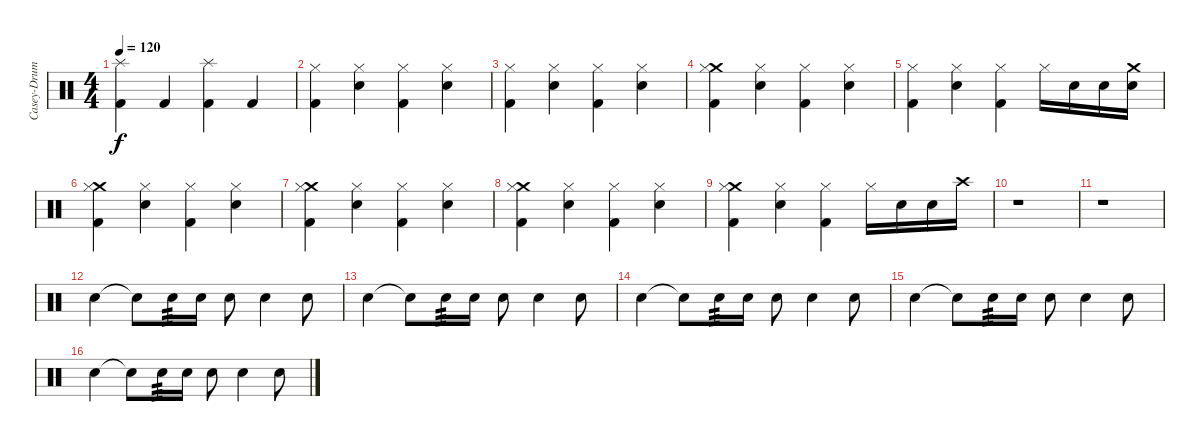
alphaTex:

\track ("Casey-Drums" "Casey-Drum") {instrument percussion}
\staff {score}
\articulation defaults
\ts (4 4)
\tempo 120
\clef neutral
\ks c
("Splash (hit)" "Kick (hit) 2").4{dy f} "Kick (hit) 2".4 ("Splash (hit)" "Kick (hit) 2").4 "Kick (hit) 2".4 |
("Hi-Hat (closed)" "Kick (hit) 2").4 ("Hi-Hat (closed)" "Electric Snare (hit)").4 ("Hi-Hat (closed)" "Kick (hit) 2").4 ("Hi-Hat (closed)" "Electric Snare (hit)").4 |
("Hi-Hat (closed)" "Kick (hit) 2").4 ("Hi-Hat (closed)" "Electric Snare (hit)").4 ("Hi-Hat (closed)" "Kick (hit) 2").4 ("Hi-Hat (closed)" "Electric Snare (hit)").4 |
("Crash medium (hit)" "Hi-Hat (closed)" "Kick (hit) 2").4 ("Hi-Hat (closed)" "Electric Snare (hit)").4 ("Hi-Hat (closed)" "Kick (hit) 2").4 ("Hi-Hat (closed)" "Electric Snare (hit)").4 |
("Hi-Hat (closed)" "Kick (hit) 2").4 ("Hi-Hat (closed)" "Electric Snare (hit)").4 ("Hi-Hat (closed)" "Kick (hit) 2").4 "Hi-Hat (closed)".16 "Electric Snare (hit)".16 "Electric Snare (hit)".16 ("Crash medium (hit)" "Electric Snare (hit)").16 |
("Crash medium (hit)" "Hi-Hat (closed)" "Kick (hit) 2").4 ("Hi-Hat (closed)" "Electric Snare (hit)").4 ("Hi-Hat (closed)" "Kick (hit) 2").4 ("Hi-Hat (closed)" "Electric Snare (hit)").4 |
("Crash medium (hit)" "Hi-Hat (closed)" "Kick (hit) 2").4 ("Hi-Hat (closed)" "Electric Snare (hit)").4 ("Hi-Hat (closed)" "Kick (hit) 2").4 ("Hi-Hat (closed)" "Electric Snare (hit)").4 |
("Crash medium (hit)" "Hi-Hat (closed)" "Kick (hit) 2").4 ("Hi-Hat (closed)" "Electric Snare (hit)").4 ("Hi-Hat (closed)" "Kick (hit) 2").4 ("Hi-Hat (closed)" "Electric Snare (hit)").4 |
("Crash medium (hit)" "Hi-Hat (closed)" "Kick (hit) 2").4 ("Hi-Hat (closed)" "Electric Snare (hit)").4 ("Hi-Hat (closed)" "Kick (hit) 2").4 "Hi-Hat (closed)".16 "Electric Snare (hit)".16 "Electric Snare (hit)".16 "Crash high (hit)".16 |
r.1 |
r.1 |
"Electric Snare (hit)".4 "Electric Snare (hit)"{t}.8 "Electric Snare (hit)".16{tp 3} "Electric Snare (hit)".16 "Electric Snare (hit)".8 "Electric Snare (hit)".4 "Electric Snare (hit)".8 |
"Electric Snare (hit)".4 "Electric Snare (hit)"{t}.8 "Electric Snare (hit)".16{tp 3} "Electric Snare (hit)".16 "Electric Snare (hit)".8 "Electric Snare (hit)".4 "Electric Snare (hit)".8 |
"Electric Snare (hit)".4 "Electric Snare (hit)"{t}.8 "Electric Snare (hit)".16{tp 3} "Electric Snare (hit)".16 "Electric Snare (hit)".8 "Electric Snare (hit)".4 "Electric Snare (hit)".8 |
"Electric Snare (hit)".4 "Electric Snare (hit)"{t}.8 "Electric Snare (hit)".16{tp 3} "Electric Snare (hit)".16 "Electric Snare (hit)".8 "Electric Snare (hit)".4 "Electric Snare (hit)".8 |
"Electric Snare (hit)".4 "Electric Snare (hit)"{t}.8 "Electric Snare (hit)".16{tp 3} "Electric Snare (hit)".16 "Electric Snare (hit)".8 "Electric Snare (hit)".4 "Electric Snare (hit)".8
